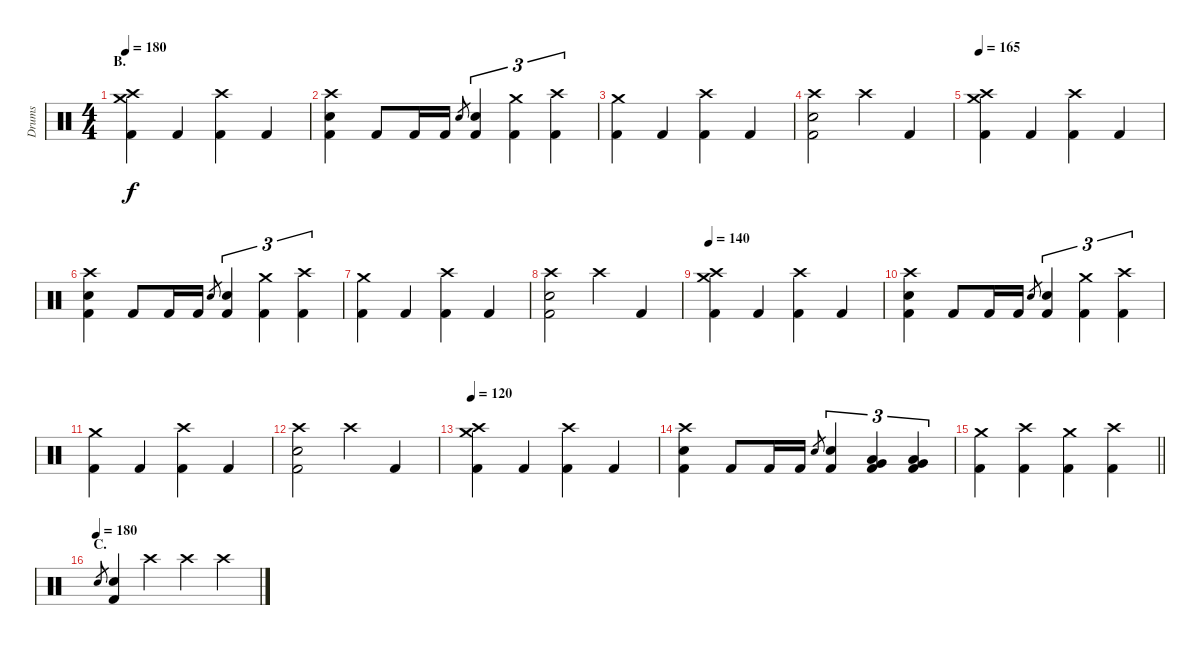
\track ("Drums" "Drums") {instrument percussion}
\staff {score}
\articulation defaults
\ts (4 4)
\section ("" "B.")
\tempo 180
\clef neutral
\ks c
("Crash medium (hit)" "Crash high (hit)" "Kick (hit) 2").4{dy f} "Kick (hit) 2".4 ("Crash high (hit)" "Kick (hit) 2").4 "Kick (hit) 2".4 |
("Crash high (hit)" "Electric Snare (hit)" "Kick (hit) 2").4 "Kick (hit) 2".8 "Kick (hit) 2".16 "Kick (hit) 2".16 "Electric Snare (hit)".8{gr} ("Electric Snare (hit)" "Kick (hit) 2").4{tu (3 2)} ("Crash medium (hit)" "Kick (hit) 2").4{tu (3 2)} ("Crash high (hit)" "Kick (hit) 2").4{tu (3 2)} |
("Crash medium (hit)" "Kick (hit) 2").4 "Kick (hit) 2".4 ("Crash high (hit)" "Kick (hit) 2").4 "Kick (hit) 2".4 |
("Crash high (hit)" "Electric Snare (hit)" "Kick (hit) 2").2 "Crash high (hit)".4 "Kick (hit) 2".4 |
\tempo 165
("Crash medium (hit)" "Crash high (hit)" "Kick (hit) 2").4 "Kick (hit) 2".4 ("Crash high (hit)" "Kick (hit) 2").4 "Kick (hit) 2".4 |
("Crash high (hit)" "Electric Snare (hit)" "Kick (hit) 2").4 "Kick (hit) 2".8 "Kick (hit) 2".16 "Kick (hit) 2".16 "Electric Snare (hit)".8{gr} ("Electric Snare (hit)" "Kick (hit) 2").4{tu (3 2)} ("Crash medium (hit)" "Kick (hit) 2").4{tu (3 2)} ("Crash high (hit)" "Kick (hit) 2").4{tu (3 2)} |
("Crash medium (hit)" "Kick (hit) 2").4 "Kick (hit) 2".4 ("Crash high (hit)" "Kick (hit) 2").4 "Kick (hit) 2".4 |
("Crash high (hit)" "Electric Snare (hit)" "Kick (hit) 2").2 "Crash high (hit)".4 "Kick (hit) 2".4 |
\tempo 140
("Crash medium (hit)" "Crash high (hit)" "Kick (hit) 2").4 "Kick (hit) 2".4 ("Crash high (hit)" "Kick (hit) 2").4 "Kick (hit) 2".4 |
("Crash high (hit)" "Electric Snare (hit)" "Kick (hit) 2").4 "Kick (hit) 2".8 "Kick (hit) 2".16 "Kick (hit) 2".16 "Electric Snare (hit)".8{gr} ("Electric Snare (hit)" "Kick (hit) 2").4{tu (3 2)} ("Crash medium (hit)" "Kick (hit) 2").4{tu (3 2)} ("Crash high (hit)" "Kick (hit) 2").4{tu (3 2)} |
("Crash medium (hit)" "Kick (hit) 2").4 "Kick (hit) 2".4 ("Crash high (hit)" "Kick (hit) 2").4 "Kick (hit) 2".4 |
("Crash high (hit)" "Electric Snare (hit)" "Kick (hit) 2").2 "Crash high (hit)".4 "Kick (hit) 2".4 |
\tempo 120
("Crash medium (hit)" "Crash high (hit)" "Kick (hit) 2").4 "Kick (hit) 2".4 ("Crash high (hit)" "Kick (hit) 2").4 "Kick (hit) 2".4 |
("Crash high (hit)" "Electric Snare (hit)" "Kick (hit) 2").4 "Kick (hit) 2".8 "Kick (hit) 2".16 "Kick (hit) 2".16 "Electric Snare (hit)".8{gr} ("Electric Snare (hit)" "Kick (hit) 2").4{tu (3 2)} ("Low Tom (hit)" "Very Low Tom (hit)" "Kick (hit) 2").4{tu (3 2)} ("Very Low Tom (hit)" "Low Floor Tom (hit)" "Kick (hit) 2").4{tu (3 2)} |
\barLineRight lightlight
("Crash medium (hit)" "Kick (hit) 2").4 ("Crash high (hit)" "Kick (hit) 2").4 ("Crash medium (hit)" "Kick (hit) 2").4 ("Crash high (hit)" "Kick (hit) 2").4 |
\section ("" "C.")
\tempo (180)
"Electric Snare (hit)".8{gr} ("Electric Snare (hit)" "Kick (hit) 2").4 "Crash high (hit)".4 "Crash high (hit)".4 "Crash high (hit)".4
